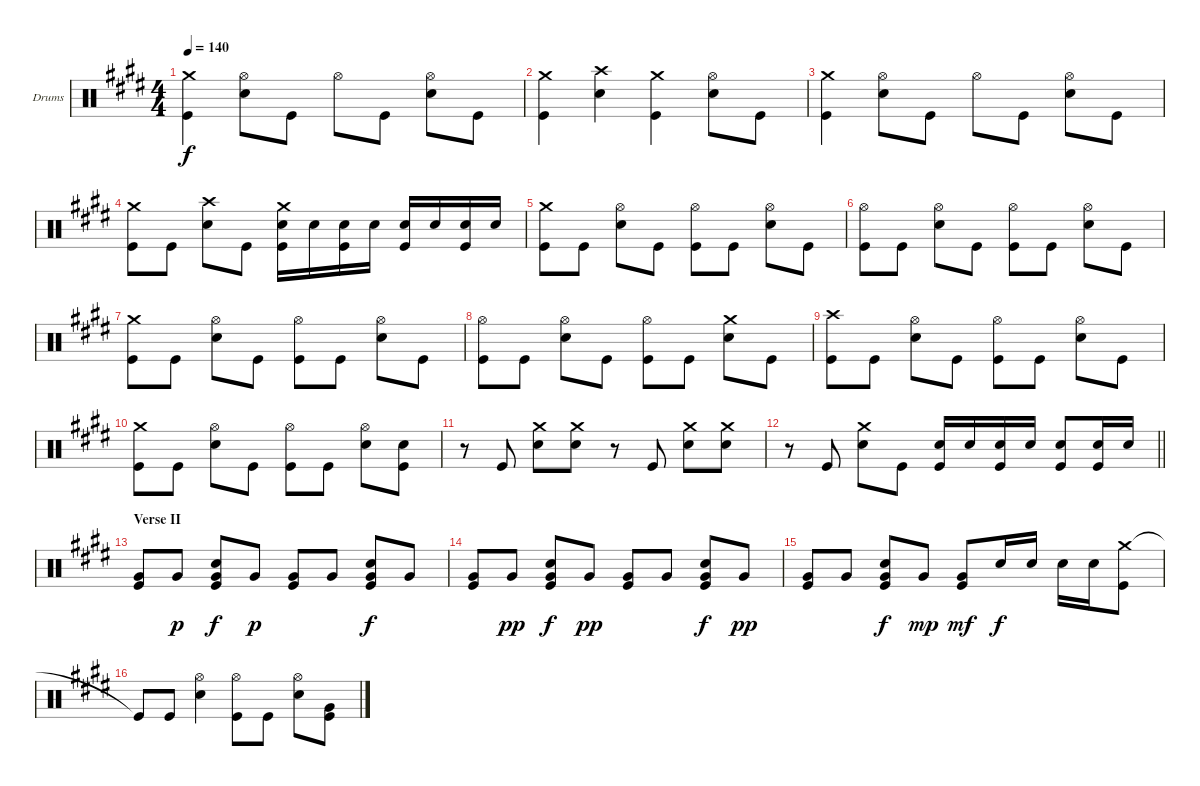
\bracketExtendMode groupsimilarinstruments
\firstSystemTrackNameOrientation horizontal
\otherSystemsTrackNameOrientation horizontal
\track ("Drumkit" "Drums") {instrument percussion}
\staff {score}
\articulation defaults
\ts (4 4)
\tempo 140
\clef neutral
\ks e
("Crash medium (hit)" "Kick (hit)").4{dy f} ("Hi-Hat (open)" "Snare (hit) 2").8 "Kick (hit)".8 "Hi-Hat (open)".8 "Kick (hit)".8 ("Hi-Hat (open)" "Snare (hit) 2").8 "Kick (hit)".8 |
("Crash medium (hit)" "Kick (hit)").4 ("Crash high (hit)" "Snare (hit) 2").4 ("Crash medium (hit)" "Kick (hit)").4 ("Hi-Hat (open)" "Snare (hit) 2").8 "Kick (hit)".8 |
("Crash medium (hit)" "Kick (hit)").4 ("Hi-Hat (open)" "Snare (hit) 2").8 "Kick (hit)".8 "Hi-Hat (open)".8 "Kick (hit)".8 ("Hi-Hat (open)" "Snare (hit) 2").8 "Kick (hit)".8 |
("Crash medium (hit)" "Kick (hit)").8 "Kick (hit)".8 ("Crash high (hit)" "Snare (hit) 2").8 "Kick (hit)".8 ("Crash medium (hit)" "Snare (hit) 2" "Kick (hit)").16 "Snare (hit) 2".16 ("Snare (hit) 2" "Kick (hit)").16 "Snare (hit) 2".16 ("Snare (hit) 2" "Kick (hit)").16 "Snare (hit) 2".16 ("Snare (hit) 2" "Kick (hit)").16 "Snare (hit) 2".16 |
("Crash medium (hit)" "Kick (hit)").8 "Kick (hit)".8 ("Hi-Hat (open)" "Snare (hit) 2").8 "Kick (hit)".8 ("Hi-Hat (open)" "Kick (hit)").8 "Kick (hit)".8 ("Hi-Hat (open)" "Snare (hit) 2").8 "Kick (hit)".8 |
("Hi-Hat (open)" "Kick (hit)").8 "Kick (hit)".8 ("Hi-Hat (open)" "Snare (hit) 2").8 "Kick (hit)".8 ("Hi-Hat (open)" "Kick (hit)").8 "Kick (hit)".8 ("Hi-Hat (open)" "Snare (hit) 2").8 "Kick (hit)".8 |
("Crash medium (hit)" "Kick (hit)").8 "Kick (hit)".8 ("Hi-Hat (open)" "Snare (hit) 2").8 "Kick (hit)".8 ("Hi-Hat (open)" "Kick (hit)").8 "Kick (hit)".8 ("Hi-Hat (open)" "Snare (hit) 2").8 "Kick (hit)".8 |
("Hi-Hat (open)" "Kick (hit)").8 "Kick (hit)".8 ("Hi-Hat (open)" "Snare (hit) 2").8 "Kick (hit)".8 ("Hi-Hat (open)" "Kick (hit)").8 "Kick (hit)".8 ("Crash medium (hit)" "Snare (hit) 2").8 "Kick (hit)".8 |
("Crash high (hit)" "Kick (hit)").8 "Kick (hit)".8 ("Hi-Hat (open)" "Snare (hit) 2").8 "Kick (hit)".8 ("Hi-Hat (open)" "Kick (hit)").8 "Kick (hit)".8 ("Hi-Hat (open)" "Snare (hit) 2").8 "Kick (hit)".8 |
("Crash medium (hit)" "Kick (hit)").8 "Kick (hit)".8 ("Hi-Hat (open)" "Snare (hit) 2").8 "Kick (hit)".8 ("Hi-Hat (open)" "Kick (hit)").8 "Kick (hit)".8 ("Hi-Hat (open)" "Snare (hit) 2").8 ("Snare (hit) 2" "Kick (hit)").8 |
r.8 "Kick (hit)".8 ("Crash medium (hit)" "Snare (hit) 2").8 ("Crash medium (hit)" "Snare (hit) 2").8 r.8 "Kick (hit)".8 ("Crash medium (hit)" "Snare (hit) 2").8 ("Crash medium (hit)" "Snare (hit) 2").8 |
\barLineRight lightlight
r.8 "Kick (hit)".8 ("Crash medium (hit)" "Snare (hit) 2").8 "Kick (hit)".8 ("Snare (hit) 2" "Kick (hit)").16 "Snare (hit) 2".16 ("Snare (hit) 2" "Kick (hit)").16 "Snare (hit) 2".16 ("Snare (hit) 2" "Kick (hit)").8 ("Snare (hit) 2" "Kick (hit)").16 "Snare (hit) 2".16 |
\section ("" "Verse II")
("Very Low Tom (hit)" "Kick (hit)").8 "Very Low Tom (hit)".8{dy p} ("Snare (hit) 2" "Very Low Tom (hit)" "Kick (hit)").8{dy f} "Very Low Tom (hit)".8{dy p} ("Very Low Tom (hit)" "Kick (hit)").8 "Very Low Tom (hit)".8 ("Snare (hit) 2" "Very Low Tom (hit)" "Kick (hit)").8{dy f} "Very Low Tom (hit)".8 |
("Very Low Tom (hit)" "Kick (hit)").8 "Very Low Tom (hit)".8{dy pp} ("Snare (hit) 2" "Very Low Tom (hit)" "Kick (hit)").8{dy f} "Very Low Tom (hit)".8{dy pp} ("Very Low Tom (hit)" "Kick (hit)").8 "Very Low Tom (hit)".8 ("Snare (hit) 2" "Very Low Tom (hit)" "Kick (hit)").8{dy f} "Very Low Tom (hit)".8{dy pp} |
("Very Low Tom (hit)" "Kick (hit)").8 "Very Low Tom (hit)".8 ("Snare (hit) 2" "Very Low Tom (hit)" "Kick (hit)").8{dy f} "Very Low Tom (hit)".8{dy mp} ("Very Low Tom (hit)" "Kick (hit)").8{dy mf} "Snare (hit) 2".16{dy f} "Snare (hit) 2".16 "Snare (hit) 2".16 "Snare (hit) 2".16 ("Crash medium (hit)" "Kick (hit)").8 |
"Kick (hit)"{t}.8 "Kick (hit)".8 ("Hi-Hat (open)" "Snare (hit) 2").4 ("Hi-Hat (open)" "Kick (hit)").8 "Kick (hit)".8 ("Hi-Hat (open)" "Snare (hit) 2").8 ("Very Low Tom (hit)" "Kick (hit)").8
